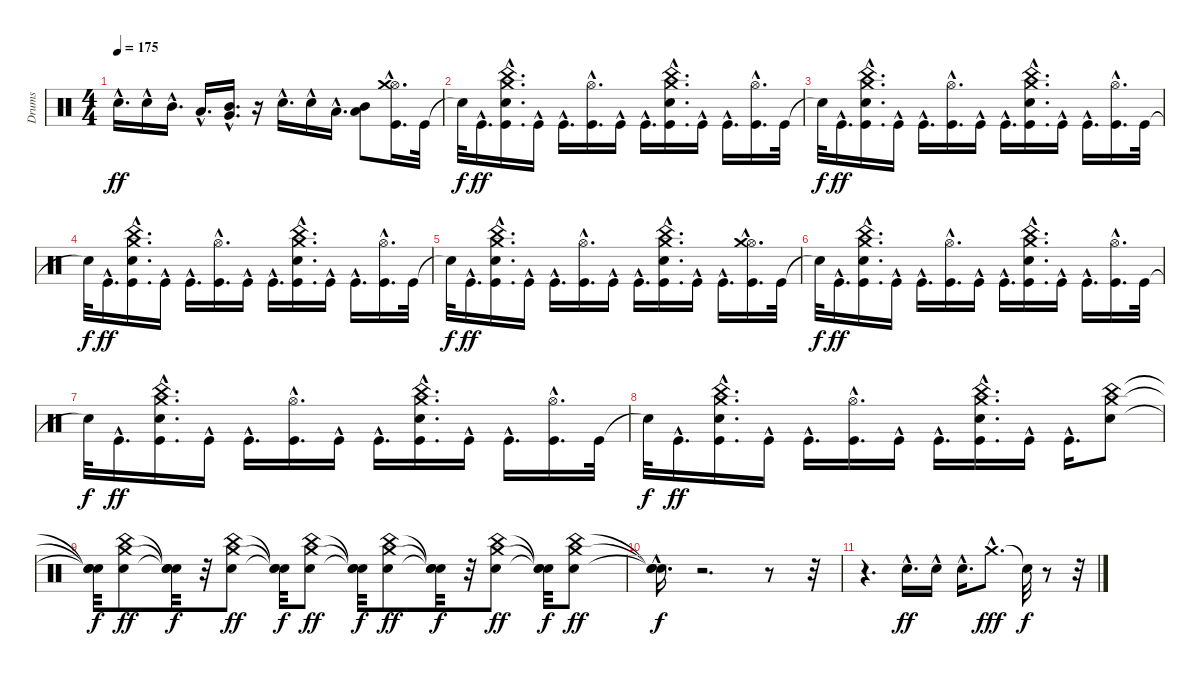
\track ("Drums" "Drums") {instrument percussion}
\staff {score}
\articulation defaults
\ts (4 4)
\tempo 175
\clef neutral
\ks c "Electric Snare (hit)"{hac}.16{d dy ff} "Electric Snare (hit)"{hac}.16 "Mid Tom (hit)"{hac}.16{d} "Low Tom (hit)"{hac}.16{d}
("Very Low Tom (hit)"{hac} "Mid Tom (hit)"{hac}).16{d} r.16 "Electric Snare (hit)"{hac}.16{d} "Electric Snare (hit)"{hac}.16 "Low Tom (hit)"{hac}.16{d} ("Low Floor Tom (hit)" "Mid Tom (hit)").8 ("Kick (hit)"{hac} "Hi-Hat (open)"{hac} "Crash medium (hit)"{hac}).16{d} "Kick (hit)".32 |
"Snare (hit)"{t}.32{dy f} "Kick (hit)"{hac}.16{d dy ff} ("Kick (hit)"{hac} "Electric Snare (hit)"{hac} "China (hit)"{hac} "Crash medium (hit)"{hac}).16{d} "Kick (hit)"{hac}.16 "Kick (hit)"{hac}.16{d} ("Kick (hit)"{hac} "Hi-Hat (open)"{hac}).16{d} "Kick (hit)"{hac}.16 "Kick (hit)"{hac}.16{d} ("Kick (hit)"{hac} "Electric Snare (hit)"{hac} "China (hit)"{hac} "Crash medium (hit)"{hac}).16{d} "Kick (hit)"{hac}.16 "Kick (hit)"{hac}.16{d} ("Kick (hit)"{hac} "Hi-Hat (open)"{hac}).16{d} "Kick (hit)".32 |
"Snare (hit)"{t}.32{dy f} "Kick (hit)"{hac}.16{d dy ff} ("Kick (hit)"{hac} "Electric Snare (hit)"{hac} "China (hit)"{hac} "Crash medium (hit)"{hac}).16{d} "Kick (hit)"{hac}.16 "Kick (hit)"{hac}.16{d} ("Kick (hit)"{hac} "Hi-Hat (open)"{hac}).16{d} "Kick (hit)"{hac}.16 "Kick (hit)"{hac}.16{d} ("Kick (hit)"{hac} "Electric Snare (hit)"{hac} "China (hit)"{hac} "Crash medium (hit)"{hac}).16{d} "Kick (hit)"{hac}.16 "Kick (hit)"{hac}.16{d} ("Kick (hit)"{hac} "Hi-Hat (open)"{hac}).16{d} "Kick (hit)".32 |
"Snare (hit)"{t}.32{dy f} "Kick (hit)"{hac}.16{d dy ff} ("Kick (hit)"{hac} "Electric Snare (hit)"{hac} "China (hit)"{hac} "Crash medium (hit)"{hac}).16{d} "Kick (hit)"{hac}.16 "Kick (hit)"{hac}.16{d} ("Kick (hit)"{hac} "Hi-Hat (open)"{hac}).16{d} "Kick (hit)"{hac}.16 "Kick (hit)"{hac}.16{d} ("Kick (hit)"{hac} "Electric Snare (hit)"{hac} "China (hit)"{hac} "Crash medium (hit)"{hac}).16{d} "Kick (hit)"{hac}.16 "Kick (hit)"{hac}.16{d} ("Kick (hit)"{hac} "Hi-Hat (open)"{hac}).16{d} "Kick (hit)".32 |
"Snare (hit)"{t}.32{dy f} "Kick (hit)"{hac}.16{d dy ff} ("Kick (hit)"{hac} "Electric Snare (hit)"{hac} "China (hit)"{hac} "Crash medium (hit)"{hac}).16{d} "Kick (hit)"{hac}.16 "Kick (hit)"{hac}.16{d} ("Kick (hit)"{hac} "Hi-Hat (open)"{hac}).16{d} "Kick (hit)"{hac}.16 "Kick (hit)"{hac}.16{d} ("Kick (hit)"{hac} "Electric Snare (hit)"{hac} "China (hit)"{hac} "Crash medium (hit)"{hac}).16{d} "Kick (hit)"{hac}.16 "Kick (hit)"{hac}.16{d} ("Kick (hit)"{hac} "Hi-Hat (open)"{hac} "Crash medium (hit)"{hac}).16{d} "Kick (hit)".32 |
"Snare (hit)"{t}.32{dy f} "Kick (hit)"{hac}.16{d dy ff} ("Kick (hit)"{hac} "Electric Snare (hit)"{hac} "China (hit)"{hac} "Crash medium (hit)"{hac}).16{d} "Kick (hit)"{hac}.16 "Kick (hit)"{hac}.16{d} ("Kick (hit)"{hac} "Hi-Hat (open)"{hac}).16{d} "Kick (hit)"{hac}.16 "Kick (hit)"{hac}.16{d} ("Kick (hit)"{hac} "Electric Snare (hit)"{hac} "China (hit)"{hac} "Crash medium (hit)"{hac}).16{d} "Kick (hit)"{hac}.16 "Kick (hit)"{hac}.16{d} ("Kick (hit)"{hac} "Hi-Hat (open)"{hac}).16{d} "Kick (hit)".32 |
"Snare (hit)"{t}.32{dy f} "Kick (hit)"{hac}.16{d dy ff} ("Kick (hit)"{hac} "Electric Snare (hit)"{hac} "China (hit)"{hac} "Crash medium (hit)"{hac}).16{d} "Kick (hit)"{hac}.16 "Kick (hit)"{hac}.16{d} ("Kick (hit)"{hac} "Hi-Hat (open)"{hac}).16{d} "Kick (hit)"{hac}.16 "Kick (hit)"{hac}.16{d} ("Kick (hit)"{hac} "Electric Snare (hit)"{hac} "China (hit)"{hac} "Crash medium (hit)"{hac}).16{d} "Kick (hit)"{hac}.16 "Kick (hit)"{hac}.16{d} ("Kick (hit)"{hac} "Hi-Hat (open)"{hac}).16{d} "Kick (hit)".32 |
"Snare (hit)"{t}.32{dy f} "Kick (hit)"{hac}.16{d dy ff} ("Kick (hit)"{hac} "Electric Snare (hit)"{hac} "China (hit)"{hac} "Crash medium (hit)"{hac}).16{d} "Kick (hit)"{hac}.16 "Kick (hit)"{hac}.16{d} ("Kick (hit)"{hac} "Hi-Hat (open)"{hac}).16{d} "Kick (hit)"{hac}.16 "Kick (hit)"{hac}.16{d} ("Kick (hit)"{hac} "Electric Snare (hit)"{hac} "China (hit)"{hac} "Crash medium (hit)"{hac}).16{d} "Kick (hit)"{hac}.16 "Kick (hit)"{hac}.16{d} ("Electric Snare (hit)" "China (hit)" "Crash medium (hit)").8 |
("Snare (hit)"{t} "Snare (hit)"{t} "Snare (hit)"{t}).32{dy f} ("Electric Snare (hit)" "China (hit)" "Crash medium (hit)").8{dy ff} ("Snare (hit)"{t} "Snare (hit)"{t} "Snare (hit)"{t}).32{dy f} r.32 ("Electric Snare (hit)" "China (hit)" "Crash medium (hit)").8{dy ff} ("Snare (hit)"{t} "Snare (hit)"{t} "Snare (hit)"{t}).32{dy f} ("Electric Snare (hit)" "China (hit)" "Crash medium (hit)").8{dy ff} ("Snare (hit)"{t} "Snare (hit)"{t} "Snare (hit)"{t}).32{dy f} ("Electric Snare (hit)" "China (hit)" "Crash medium (hit)").8{dy ff} ("Snare (hit)"{t} "Snare (hit)"{t} "Snare (hit)"{t}).32{dy f} r.32 ("Electric Snare (hit)" "China (hit)" "Crash medium (hit)").8{dy ff} ("Snare (hit)"{t} "Snare (hit)"{t} "Snare (hit)"{t}).32{dy f} ("Electric Snare (hit)" "China (hit)" "Crash medium (hit)").8{dy ff} |
("Snare (hit)"{hac t} "Snare (hit)"{hac t} "Snare (hit)"{hac t}).16{d dy f} r.2{d} r.8 r.32 |
r.4{d} "Electric Snare (hit)"{hac}.16{d dy ff} "Electric Snare (hit)"{hac}.16 "Electric Snare (hit)"{hac}.16{d} "Crash medium (hit)"{hac}.8{d dy fff} "Snare (hit)"{t}.32{dy f} r.8 r.32
